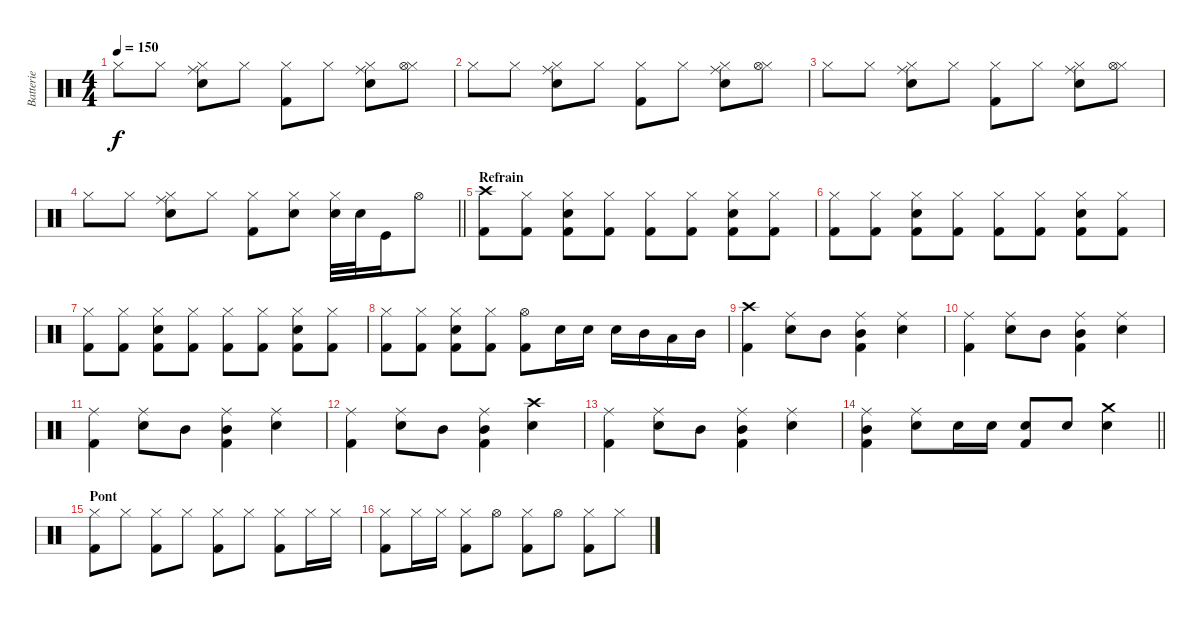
\track ("Batterie" "Batterie") {instrument percussion}
\staff {score}
\articulation defaults
\ts (4 4)
\tempo 150
\clef neutral
\ks c "Hi-Hat (closed)".8{dy f} "Hi-Hat (closed)".8
("Hi-Hat (closed)" "Electric Snare (hit)" "Ride (middle)").8 "Hi-Hat (closed)".8 ("Hi-Hat (closed)" "Kick (hit) 2").8 "Hi-Hat (closed)".8 ("Hi-Hat (closed)" "Electric Snare (hit)" "Ride (middle)").8 ("Hi-Hat (closed)" "Hi-Hat (open)").8 |
"Hi-Hat (closed)".8 "Hi-Hat (closed)".8 ("Hi-Hat (closed)" "Electric Snare (hit)" "Ride (middle)").8 "Hi-Hat (closed)".8 ("Hi-Hat (closed)" "Kick (hit) 2").8 "Hi-Hat (closed)".8 ("Hi-Hat (closed)" "Electric Snare (hit)" "Ride (middle)").8 ("Hi-Hat (closed)" "Hi-Hat (open)").8 |
"Hi-Hat (closed)".8 "Hi-Hat (closed)".8 ("Hi-Hat (closed)" "Electric Snare (hit)" "Ride (middle)").8 "Hi-Hat (closed)".8 ("Hi-Hat (closed)" "Kick (hit) 2").8 "Hi-Hat (closed)".8 ("Hi-Hat (closed)" "Electric Snare (hit)" "Ride (middle)").8 ("Hi-Hat (closed)" "Hi-Hat (open)").8 |
\barLineRight lightlight "Hi-Hat (closed)".8 "Hi-Hat (closed)".8
("Hi-Hat (closed)" "Electric Snare (hit)" "Ride (middle)").8 "Hi-Hat (closed)".8 ("Hi-Hat (closed)" "Kick (hit) 2").8 ("Hi-Hat (closed)" "Electric Snare (hit)").8 ("Hi-Hat (closed)" "Electric Snare (hit)").32 "Electric Snare (hit)".32 "Kick (hit)".16 "Hi-Hat (open)".8 |
\section ("" "Refrain")
("Crash high (hit)" "Kick (hit) 2").8 ("Hi-Hat (closed)" "Kick (hit) 2").8 ("Hi-Hat (closed)" "Kick (hit) 2" "Electric Snare (hit)").8 ("Hi-Hat (closed)" "Kick (hit) 2").8 ("Hi-Hat (closed)" "Kick (hit) 2").8 ("Hi-Hat (closed)" "Kick (hit) 2").8 ("Hi-Hat (closed)" "Kick (hit) 2" "Electric Snare (hit)").8 ("Hi-Hat (closed)" "Kick (hit) 2").8 |
("Hi-Hat (closed)" "Kick (hit) 2").8 ("Hi-Hat (closed)" "Kick (hit) 2").8 ("Hi-Hat (closed)" "Kick (hit) 2" "Electric Snare (hit)").8 ("Hi-Hat (closed)" "Kick (hit) 2").8 ("Hi-Hat (closed)" "Kick (hit) 2").8 ("Hi-Hat (closed)" "Kick (hit) 2").8 ("Hi-Hat (closed)" "Kick (hit) 2" "Electric Snare (hit)").8 ("Hi-Hat (closed)" "Kick (hit) 2").8 |
("Hi-Hat (closed)" "Kick (hit) 2").8 ("Hi-Hat (closed)" "Kick (hit) 2").8 ("Hi-Hat (closed)" "Kick (hit) 2" "Electric Snare (hit)").8 ("Hi-Hat (closed)" "Kick (hit) 2").8 ("Hi-Hat (closed)" "Kick (hit) 2").8 ("Hi-Hat (closed)" "Kick (hit) 2").8 ("Hi-Hat (closed)" "Kick (hit) 2" "Electric Snare (hit)").8 ("Hi-Hat (closed)" "Kick (hit) 2").8 |
("Hi-Hat (closed)" "Kick (hit) 2").8 ("Hi-Hat (closed)" "Kick (hit) 2").8 ("Hi-Hat (closed)" "Kick (hit) 2" "Electric Snare (hit)").8 ("Hi-Hat (closed)" "Kick (hit) 2").8 ("Hi-Hat (open)" "Kick (hit) 2").8 "Electric Snare (hit)".16 "Electric Snare (hit)".16 "Electric Snare (hit)".16 "Mid Tom (hit)".16 "Low Tom (hit)".16 "Mid Tom (hit)".16 |
("Crash high (hit)" "Kick (hit) 2").4 ("Ride (middle)" "Electric Snare (hit)").8 "Mid Tom (hit)".8 ("Ride (middle)" "Mid Tom (hit)" "Kick (hit) 2").4 ("Ride (middle)" "Electric Snare (hit)").4 |
("Ride (middle)" "Kick (hit) 2").4 ("Ride (middle)" "Electric Snare (hit)").8 "Mid Tom (hit)".8 ("Ride (middle)" "Mid Tom (hit)" "Kick (hit) 2").4 ("Ride (middle)" "Electric Snare (hit)").4 |
("Ride (middle)" "Kick (hit) 2").4 ("Ride (middle)" "Electric Snare (hit)").8 "Mid Tom (hit)".8 ("Ride (middle)" "Mid Tom (hit)" "Kick (hit) 2").4 ("Ride (middle)" "Electric Snare (hit)").4 |
("Ride (middle)" "Kick (hit) 2").4 ("Ride (middle)" "Electric Snare (hit)").8 "Mid Tom (hit)".8 ("Ride (middle)" "Mid Tom (hit)" "Kick (hit) 2").4 ("Crash high (hit)" "Electric Snare (hit)").4 |
("Ride (middle)" "Kick (hit) 2").4 ("Ride (middle)" "Electric Snare (hit)").8 "Mid Tom (hit)".8 ("Ride (middle)" "Mid Tom (hit)" "Kick (hit) 2").4 ("Ride (middle)" "Electric Snare (hit)").4 |
\barLineRight lightlight
("Ride (middle)" "Kick (hit) 2" "Mid Tom (hit)").4 ("Ride (middle)" "Electric Snare (hit)").8 "Electric Snare (hit)".16 "Electric Snare (hit)".16 ("Electric Snare (hit)" "Kick (hit) 2").8 "Electric Snare (hit)".8 ("Crash medium (hit)" "Electric Snare (hit)").4 |
\section ("" "Pont")
("Hi-Hat (closed)" "Kick (hit) 2").8 "Hi-Hat (closed)".8 ("Hi-Hat (closed)" "Kick (hit) 2").8 "Hi-Hat (closed)".8 ("Hi-Hat (closed)" "Kick (hit) 2").8 "Hi-Hat (closed)".8 ("Hi-Hat (closed)" "Kick (hit) 2").8 "Hi-Hat (closed)".16 "Hi-Hat (closed)".16 |
("Hi-Hat (closed)" "Kick (hit) 2").8 "Hi-Hat (closed)".16 "Hi-Hat (closed)".16 ("Hi-Hat (closed)" "Kick (hit) 2").8 "Hi-Hat (open)".8 ("Hi-Hat (closed)" "Kick (hit) 2").8 "Hi-Hat (open)".8 ("Hi-Hat (closed)" "Kick (hit) 2").8 "Hi-Hat (closed)".8
